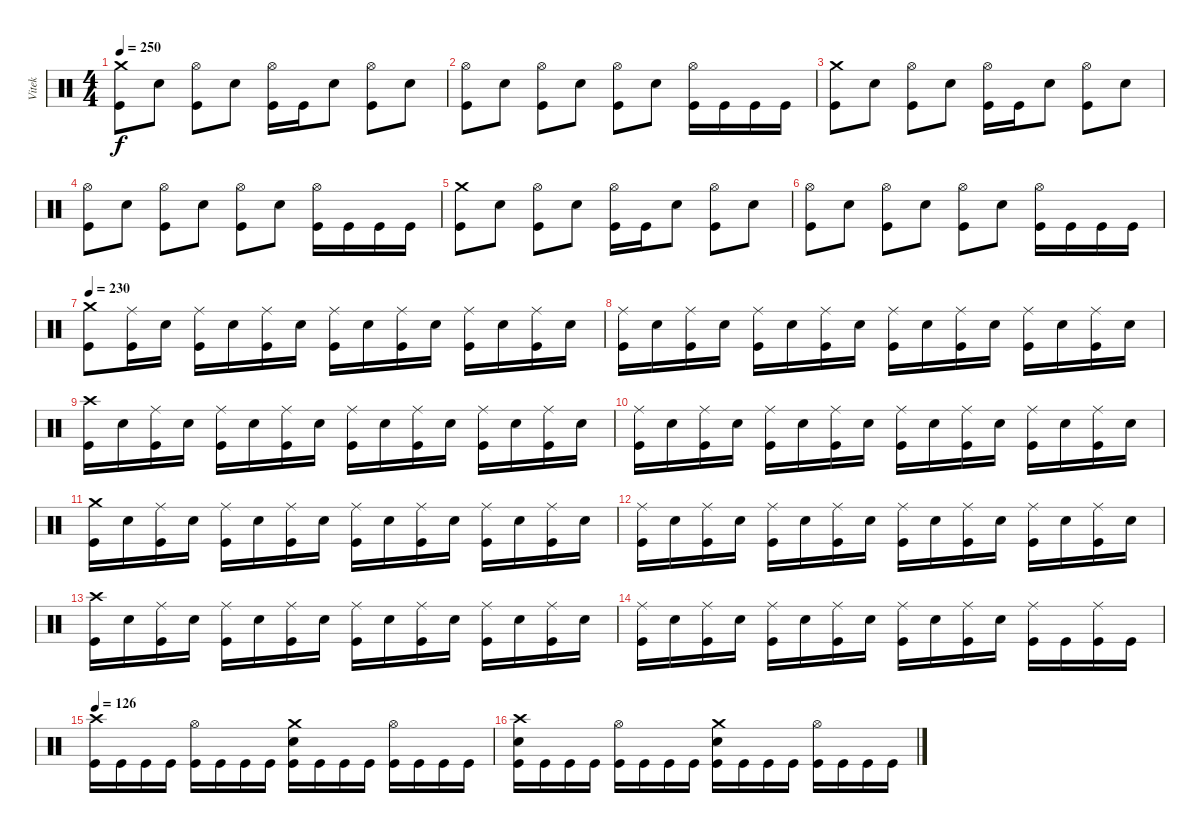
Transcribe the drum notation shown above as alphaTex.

\track ("Vitek" "Vitek") {instrument percussion}
\staff {score}
\articulation defaults
\ts (4 4)
\tempo 250
\clef neutral
\ks c
("Crash medium (hit)" "Kick (hit)").8{dy f} "Snare (hit) 2".8 ("Hi-Hat (open)" "Kick (hit)").8 "Snare (hit) 2".8 ("Hi-Hat (open)" "Kick (hit)").16 "Kick (hit)".16 "Snare (hit) 2".8 ("Hi-Hat (open)" "Kick (hit)").8 "Snare (hit) 2".8 |
("Hi-Hat (open)" "Kick (hit)").8 "Snare (hit) 2".8 ("Hi-Hat (open)" "Kick (hit)").8 "Snare (hit) 2".8 ("Hi-Hat (open)" "Kick (hit)").8 "Snare (hit) 2".8 ("Hi-Hat (open)" "Kick (hit)").16 "Kick (hit)".16 "Kick (hit)".16 "Kick (hit)".16 |
("Crash medium (hit)" "Kick (hit)").8 "Snare (hit) 2".8 ("Hi-Hat (open)" "Kick (hit)").8 "Snare (hit) 2".8 ("Hi-Hat (open)" "Kick (hit)").16 "Kick (hit)".16 "Snare (hit) 2".8 ("Hi-Hat (open)" "Kick (hit)").8 "Snare (hit) 2".8 |
("Hi-Hat (open)" "Kick (hit)").8 "Snare (hit) 2".8 ("Hi-Hat (open)" "Kick (hit)").8 "Snare (hit) 2".8 ("Hi-Hat (open)" "Kick (hit)").8 "Snare (hit) 2".8 ("Hi-Hat (open)" "Kick (hit)").16 "Kick (hit)".16 "Kick (hit)".16 "Kick (hit)".16 |
("Crash medium (hit)" "Kick (hit)").8 "Snare (hit) 2".8 ("Hi-Hat (open)" "Kick (hit)").8 "Snare (hit) 2".8 ("Hi-Hat (open)" "Kick (hit)").16 "Kick (hit)".16 "Snare (hit) 2".8 ("Hi-Hat (open)" "Kick (hit)").8 "Snare (hit) 2".8 |
("Hi-Hat (open)" "Kick (hit)").8 "Snare (hit) 2".8 ("Hi-Hat (open)" "Kick (hit)").8 "Snare (hit) 2".8 ("Hi-Hat (open)" "Kick (hit)").8 "Snare (hit) 2".8 ("Hi-Hat (open)" "Kick (hit)").16 "Kick (hit)".16 "Kick (hit)".16 "Kick (hit)".16 |
\tempo 230
("Crash medium (hit)" "Kick (hit)").8 ("Ride (middle)" "Kick (hit)").16 "Snare (hit) 2".16 ("Ride (middle)" "Kick (hit)").16 "Snare (hit) 2".16 ("Ride (middle)" "Kick (hit)").16 "Snare (hit) 2".16 ("Ride (middle)" "Kick (hit)").16 "Snare (hit) 2".16 ("Ride (middle)" "Kick (hit)").16 "Snare (hit) 2".16 ("Ride (middle)" "Kick (hit)").16 "Snare (hit) 2".16 ("Ride (middle)" "Kick (hit)").16 "Snare (hit) 2".16 |
("Ride (middle)" "Kick (hit)").16 "Snare (hit) 2".16 ("Ride (middle)" "Kick (hit)").16 "Snare (hit) 2".16 ("Ride (middle)" "Kick (hit)").16 "Snare (hit) 2".16 ("Ride (middle)" "Kick (hit)").16 "Snare (hit) 2".16 ("Ride (middle)" "Kick (hit)").16 "Snare (hit) 2".16 ("Ride (middle)" "Kick (hit)").16 "Snare (hit) 2".16 ("Ride (middle)" "Kick (hit)").16 "Snare (hit) 2".16 ("Ride (middle)" "Kick (hit)").16 "Snare (hit) 2".16 |
("Crash high (hit)" "Kick (hit)").16 "Snare (hit) 2".16 ("Ride (middle)" "Kick (hit)").16 "Snare (hit) 2".16 ("Ride (middle)" "Kick (hit)").16 "Snare (hit) 2".16 ("Ride (middle)" "Kick (hit)").16 "Snare (hit) 2".16 ("Ride (middle)" "Kick (hit)").16 "Snare (hit) 2".16 ("Ride (middle)" "Kick (hit)").16 "Snare (hit) 2".16 ("Ride (middle)" "Kick (hit)").16 "Snare (hit) 2".16 ("Ride (middle)" "Kick (hit)").16 "Snare (hit) 2".16 |
("Ride (middle)" "Kick (hit)").16 "Snare (hit) 2".16 ("Ride (middle)" "Kick (hit)").16 "Snare (hit) 2".16 ("Ride (middle)" "Kick (hit)").16 "Snare (hit) 2".16 ("Ride (middle)" "Kick (hit)").16 "Snare (hit) 2".16 ("Ride (middle)" "Kick (hit)").16 "Snare (hit) 2".16 ("Ride (middle)" "Kick (hit)").16 "Snare (hit) 2".16 ("Ride (middle)" "Kick (hit)").16 "Snare (hit) 2".16 ("Ride (middle)" "Kick (hit)").16 "Snare (hit) 2".16 |
("Crash medium (hit)" "Kick (hit)").16 "Snare (hit) 2".16 ("Ride (middle)" "Kick (hit)").16 "Snare (hit) 2".16 ("Ride (middle)" "Kick (hit)").16 "Snare (hit) 2".16 ("Ride (middle)" "Kick (hit)").16 "Snare (hit) 2".16 ("Ride (middle)" "Kick (hit)").16 "Snare (hit) 2".16 ("Ride (middle)" "Kick (hit)").16 "Snare (hit) 2".16 ("Ride (middle)" "Kick (hit)").16 "Snare (hit) 2".16 ("Ride (middle)" "Kick (hit)").16 "Snare (hit) 2".16 |
("Ride (middle)" "Kick (hit)").16 "Snare (hit) 2".16 ("Ride (middle)" "Kick (hit)").16 "Snare (hit) 2".16 ("Ride (middle)" "Kick (hit)").16 "Snare (hit) 2".16 ("Ride (middle)" "Kick (hit)").16 "Snare (hit) 2".16 ("Ride (middle)" "Kick (hit)").16 "Snare (hit) 2".16 ("Ride (middle)" "Kick (hit)").16 "Snare (hit) 2".16 ("Ride (middle)" "Kick (hit)").16 "Snare (hit) 2".16 ("Ride (middle)" "Kick (hit)").16 "Snare (hit) 2".16 |
("Crash high (hit)" "Kick (hit)").16 "Snare (hit) 2".16 ("Ride (middle)" "Kick (hit)").16 "Snare (hit) 2".16 ("Ride (middle)" "Kick (hit)").16 "Snare (hit) 2".16 ("Ride (middle)" "Kick (hit)").16 "Snare (hit) 2".16 ("Ride (middle)" "Kick (hit)").16 "Snare (hit) 2".16 ("Ride (middle)" "Kick (hit)").16 "Snare (hit) 2".16 ("Ride (middle)" "Kick (hit)").16 "Snare (hit) 2".16 ("Ride (middle)" "Kick (hit)").16 "Snare (hit) 2".16 |
("Ride (middle)" "Kick (hit)").16 "Snare (hit) 2".16 ("Ride (middle)" "Kick (hit)").16 "Snare (hit) 2".16 ("Ride (middle)" "Kick (hit)").16 "Snare (hit) 2".16 ("Ride (middle)" "Kick (hit)").16 "Snare (hit) 2".16 ("Ride (middle)" "Kick (hit)").16 "Snare (hit) 2".16 ("Ride (middle)" "Kick (hit)").16 "Snare (hit) 2".16 ("Ride (middle)" "Kick (hit)").16 "Kick (hit)".16 ("Ride (middle)" "Kick (hit)").16 "Kick (hit)".16 |
\tempo 126
("Crash high (hit)" "Kick (hit)").16 "Kick (hit)".16 "Kick (hit)".16 "Kick (hit)".16 ("Hi-Hat (open)" "Kick (hit)").16 "Kick (hit)".16 "Kick (hit)".16 "Kick (hit)".16 ("Crash medium (hit)" "Snare (hit) 2" "Kick (hit)").16 "Kick (hit)".16 "Kick (hit)".16 "Kick (hit)".16 ("Hi-Hat (open)" "Kick (hit)").16 "Kick (hit)".16 "Kick (hit)".16 "Kick (hit)".16 |
("Crash high (hit)" "Snare (hit) 2" "Kick (hit)").16 "Kick (hit)".16 "Kick (hit)".16 "Kick (hit)".16 ("Hi-Hat (open)" "Kick (hit)").16 "Kick (hit)".16 "Kick (hit)".16 "Kick (hit)".16 ("Crash medium (hit)" "Snare (hit) 2" "Kick (hit)").16 "Kick (hit)".16 "Kick (hit)".16 "Kick (hit)".16 ("Hi-Hat (open)" "Kick (hit)").16 "Kick (hit)".16 "Kick (hit)".16 "Kick (hit)".16
